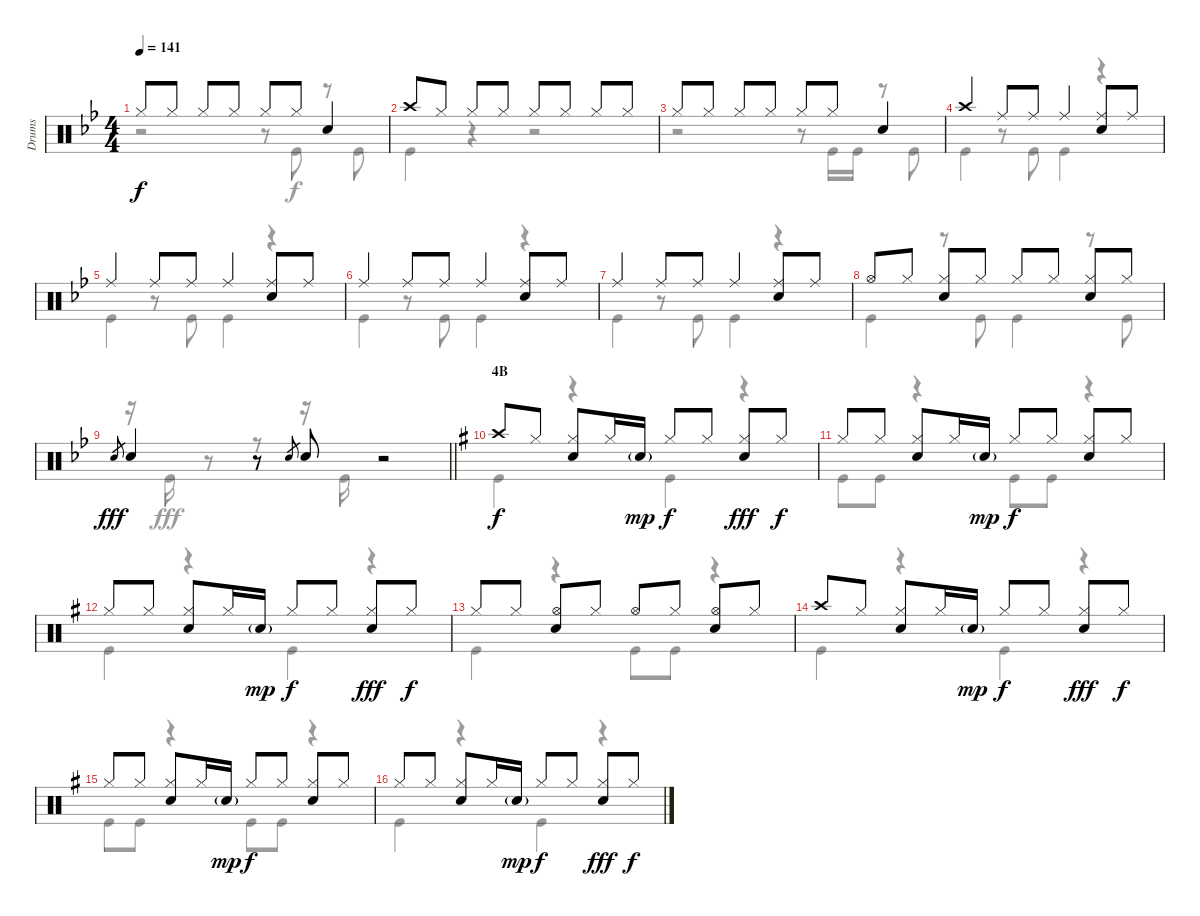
\track ("Drums" "Drums") {instrument percussion}
\staff {score}
\articulation defaults
\voice
\ts (4 4)
\tempo 141
\clef neutral
\ks bb "Hi-Hat (closed)".8{dy f} "Hi-Hat (closed)".8 "Hi-Hat (closed)".8 "Hi-Hat (closed)".8 "Hi-Hat (closed)".8 "Hi-Hat (closed)".8 "Snare (hit) 2".4
|
"Crash high (hit)".8 "Hi-Hat (closed)".8 "Hi-Hat (closed)".8 "Hi-Hat (closed)".8 "Hi-Hat (closed)".8 "Hi-Hat (closed)".8 "Hi-Hat (closed)".8 "Hi-Hat (closed)".8 |
"Hi-Hat (closed)".8 "Hi-Hat (closed)".8 "Hi-Hat (closed)".8 "Hi-Hat (closed)".8 "Hi-Hat (closed)".8 "Hi-Hat (closed)".8 "Snare (hit) 2".4 |
"Crash high (hit)".4 "Ride (middle)".8 "Ride (middle)".8 "Ride (middle)".4 ("Ride (middle)" "Snare (hit) 2").8 "Ride (middle)".8 |
"Ride (middle)".4 "Ride (middle)".8 "Ride (middle)".8 "Ride (middle)".4 ("Ride (middle)" "Snare (hit) 2").8 "Ride (middle)".8 |
"Ride (middle)".4 "Ride (middle)".8 "Ride (middle)".8 "Ride (middle)".4 ("Ride (middle)" "Snare (hit) 2").8 "Ride (middle)".8 |
"Ride (middle)".4 "Ride (middle)".8 "Ride (middle)".8 "Ride (middle)".4 ("Ride (middle)" "Snare (hit) 2").8 "Ride (middle)".8 |
"Hi-Hat (open)".8 "Hi-Hat (closed)".8 ("Hi-Hat (closed)" "Snare (hit) 2").8 "Hi-Hat (closed)".8 "Hi-Hat (closed)".8 "Hi-Hat (closed)".8 ("Hi-Hat (closed)" "Snare (hit) 2").8 "Hi-Hat (closed)".8 |
\barLineRight lightlight "Snare (hit) 2".8{gr dy fff} "Snare (hit) 2".4
r.8 "Snare (hit) 2".8{gr} "Snare (hit) 2".8 r.2 |
\section ("" "4B")
\ks g "Crash high (hit)".8{dy f} "Hi-Hat (closed)".8
("Hi-Hat (closed)" "Snare (hit) 2").8 "Hi-Hat (closed)".16 "Snare (hit) 2"{g}.16{dy mp} "Hi-Hat (closed)".8{dy f} "Hi-Hat (closed)".8 ("Hi-Hat (closed)" "Snare (hit) 2").8{dy fff} "Hi-Hat (closed)".8{dy f} |
"Hi-Hat (closed)".8 "Hi-Hat (closed)".8 ("Hi-Hat (closed)" "Snare (hit) 2").8 "Hi-Hat (closed)".16 "Snare (hit) 2"{g}.16{dy mp} "Hi-Hat (closed)".8{dy f} "Hi-Hat (closed)".8 ("Hi-Hat (closed)" "Snare (hit) 2").8 "Hi-Hat (closed)".8 |
"Hi-Hat (closed)".8 "Hi-Hat (closed)".8 ("Hi-Hat (closed)" "Snare (hit) 2").8 "Hi-Hat (closed)".16 "Snare (hit) 2"{g}.16{dy mp} "Hi-Hat (closed)".8{dy f} "Hi-Hat (closed)".8 ("Hi-Hat (closed)" "Snare (hit) 2").8{dy fff} "Hi-Hat (closed)".8{dy f} |
"Hi-Hat (closed)".8 "Hi-Hat (closed)".8 ("Hi-Hat (open)" "Snare (hit) 2").8 "Hi-Hat (closed)".8 "Hi-Hat (open)".8 "Hi-Hat (closed)".8 ("Hi-Hat (open)" "Snare (hit) 2").8 "Hi-Hat (closed)".8 |
"Crash high (hit)".8 "Hi-Hat (closed)".8 ("Hi-Hat (closed)" "Snare (hit) 2").8 "Hi-Hat (closed)".16 "Snare (hit) 2"{g}.16{dy mp} "Hi-Hat (closed)".8{dy f} "Hi-Hat (closed)".8 ("Hi-Hat (closed)" "Snare (hit) 2").8{dy fff} "Hi-Hat (closed)".8{dy f} |
"Hi-Hat (closed)".8 "Hi-Hat (closed)".8 ("Hi-Hat (closed)" "Snare (hit) 2").8 "Hi-Hat (closed)".16 "Snare (hit) 2"{g}.16{dy mp} "Hi-Hat (closed)".8{dy f} "Hi-Hat (closed)".8 ("Hi-Hat (closed)" "Snare (hit) 2").8 "Hi-Hat (closed)".8 |
"Hi-Hat (closed)".8 "Hi-Hat (closed)".8 ("Hi-Hat (closed)" "Snare (hit) 2").8 "Hi-Hat (closed)".16 "Snare (hit) 2"{g}.16{dy mp} "Hi-Hat (closed)".8{dy f} "Hi-Hat (closed)".8 ("Hi-Hat (closed)" "Snare (hit) 2").8{dy fff} "Hi-Hat (closed)".8{dy f}
\voice
\clef neutral
\ottava regular
\simile none
\ks bb
r.2{dy f} r.8 "Kick (hit)".8 r.8 "Kick (hit)".8 |
"Kick (hit)".4 r.4 r.2 |
r.2 r.8 "Kick (hit)".16 "Kick (hit)".16 r.8 "Kick (hit)".8 |
"Kick (hit)".4 r.8 "Kick (hit)".8 "Kick (hit)".4 r.4 |
"Kick (hit)".4 r.8 "Kick (hit)".8 "Kick (hit)".4 r.4 |
"Kick (hit)".4 r.8 "Kick (hit)".8 "Kick (hit)".4 r.4 |
"Kick (hit)".4 r.8 "Kick (hit)".8 "Kick (hit)".4 r.4 |
"Kick (hit)".4 r.8 "Kick (hit)".8 "Kick (hit)".4 r.8 "Kick (hit)".8 |
\barLineRight lightlight
r.16 "Kick (hit)".16{dy fff} r.8 r.8 r.16 "Kick (hit)".16 r.2 |
\ks g "Kick (hit)".4{dy f}
r.4 "Kick (hit)".4 r.4 |
"Kick (hit)".8 "Kick (hit)".8 r.4 "Kick (hit)".8 "Kick (hit)".8 r.4 |
"Kick (hit)".4 r.4 "Kick (hit)".4 r.4 |
"Kick (hit)".4 r.4 "Kick (hit)".8 "Kick (hit)".8 r.4 |
"Kick (hit)".4 r.4 "Kick (hit)".4 r.4 |
"Kick (hit)".8 "Kick (hit)".8 r.4 "Kick (hit)".8 "Kick (hit)".8 r.4 |
"Kick (hit)".4 r.4 "Kick (hit)".4 r.4
